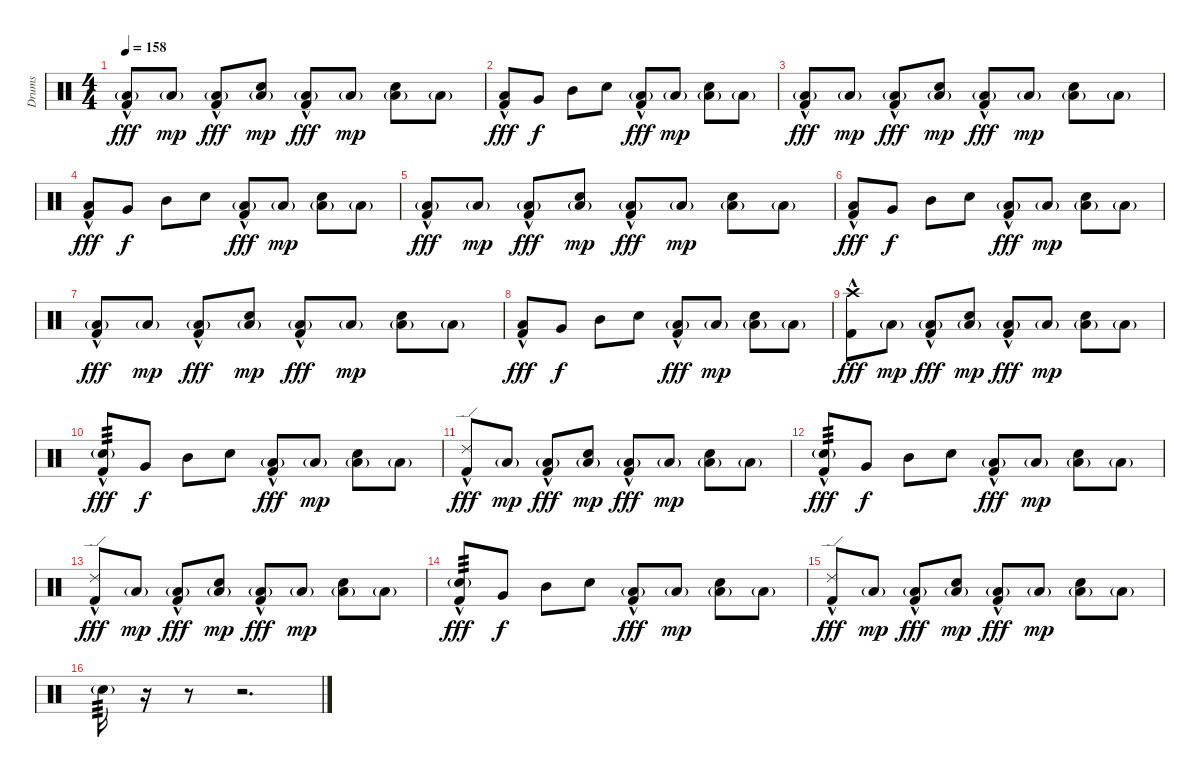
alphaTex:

\track ("Drums" "Drums") {instrument percussion}
\staff {score}
\articulation defaults
\ts (4 4)
\tempo 158
\clef neutral
\ks c
("Low Floor Tom (hit)"{g} "Kick (hit) 2"{hac}).8{dy fff} "Low Floor Tom (hit)"{g}.8{dy mp} ("Low Floor Tom (hit)"{g} "Kick (hit) 2"{hac}).8{dy fff} ("Electric Snare (hit)" "Low Floor Tom (hit)"{g}).8{dy mp} ("Low Floor Tom (hit)"{g} "Kick (hit) 2"{hac}).8{dy fff} "Low Floor Tom (hit)"{g}.8{dy mp} ("Electric Snare (hit)" "Low Floor Tom (hit)"{g}).8 "Low Floor Tom (hit)"{g}.8 |
("Low Floor Tom (hit)" "Kick (hit) 2"{hac}).8{dy fff} "Very Low Tom (hit)".8{dy f} "Mid Tom (hit)".8 "Electric Snare (hit)".8 ("Low Floor Tom (hit)"{g} "Kick (hit) 2"{hac}).8{dy fff} "Low Floor Tom (hit)"{g}.8{dy mp} ("Electric Snare (hit)" "Low Floor Tom (hit)"{g}).8 "Low Floor Tom (hit)"{g}.8 |
("Low Floor Tom (hit)"{g} "Kick (hit) 2"{hac}).8{dy fff} "Low Floor Tom (hit)"{g}.8{dy mp} ("Low Floor Tom (hit)"{g} "Kick (hit) 2"{hac}).8{dy fff} ("Electric Snare (hit)" "Low Floor Tom (hit)"{g}).8{dy mp} ("Low Floor Tom (hit)"{g} "Kick (hit) 2"{hac}).8{dy fff} "Low Floor Tom (hit)"{g}.8{dy mp} ("Electric Snare (hit)" "Low Floor Tom (hit)"{g}).8 "Low Floor Tom (hit)"{g}.8 |
("Low Floor Tom (hit)" "Kick (hit) 2"{hac}).8{dy fff} "Very Low Tom (hit)".8{dy f} "Mid Tom (hit)".8 "Electric Snare (hit)".8 ("Low Floor Tom (hit)"{g} "Kick (hit) 2"{hac}).8{dy fff} "Low Floor Tom (hit)"{g}.8{dy mp} ("Electric Snare (hit)" "Low Floor Tom (hit)"{g}).8 "Low Floor Tom (hit)"{g}.8 |
("Low Floor Tom (hit)"{g} "Kick (hit) 2"{hac}).8{dy fff} "Low Floor Tom (hit)"{g}.8{dy mp} ("Low Floor Tom (hit)"{g} "Kick (hit) 2"{hac}).8{dy fff} ("Electric Snare (hit)" "Low Floor Tom (hit)"{g}).8{dy mp} ("Low Floor Tom (hit)"{g} "Kick (hit) 2"{hac}).8{dy fff} "Low Floor Tom (hit)"{g}.8{dy mp} ("Electric Snare (hit)" "Low Floor Tom (hit)"{g}).8 "Low Floor Tom (hit)"{g}.8 |
("Low Floor Tom (hit)" "Kick (hit) 2"{hac}).8{dy fff} "Very Low Tom (hit)".8{dy f} "Mid Tom (hit)".8 "Electric Snare (hit)".8 ("Low Floor Tom (hit)"{g} "Kick (hit) 2"{hac}).8{dy fff} "Low Floor Tom (hit)"{g}.8{dy mp} ("Electric Snare (hit)" "Low Floor Tom (hit)"{g}).8 "Low Floor Tom (hit)"{g}.8 |
("Low Floor Tom (hit)"{g} "Kick (hit) 2"{hac}).8{dy fff} "Low Floor Tom (hit)"{g}.8{dy mp} ("Low Floor Tom (hit)"{g} "Kick (hit) 2"{hac}).8{dy fff} ("Electric Snare (hit)" "Low Floor Tom (hit)"{g}).8{dy mp} ("Low Floor Tom (hit)"{g} "Kick (hit) 2"{hac}).8{dy fff} "Low Floor Tom (hit)"{g}.8{dy mp} ("Electric Snare (hit)" "Low Floor Tom (hit)"{g}).8 "Low Floor Tom (hit)"{g}.8 |
("Low Floor Tom (hit)" "Kick (hit) 2"{hac}).8{dy fff} "Very Low Tom (hit)".8{dy f} "Mid Tom (hit)".8 "Electric Snare (hit)".8 ("Low Floor Tom (hit)"{g} "Kick (hit) 2"{hac}).8{dy fff} "Low Floor Tom (hit)"{g}.8{dy mp} ("Electric Snare (hit)" "Low Floor Tom (hit)"{g}).8 "Low Floor Tom (hit)"{g}.8 |
("Crash high (hit)" "Kick (hit) 2"{hac}).8{dy fff} "Low Floor Tom (hit)"{g}.8{dy mp} ("Low Floor Tom (hit)"{g} "Kick (hit) 2"{hac}).8{dy fff} ("Electric Snare (hit)" "Low Floor Tom (hit)"{g}).8{dy mp} ("Low Floor Tom (hit)"{g} "Kick (hit) 2"{hac}).8{dy fff} "Low Floor Tom (hit)"{g}.8{dy mp} ("Electric Snare (hit)" "Low Floor Tom (hit)"{g}).8 "Low Floor Tom (hit)"{g}.8 |
("Snare (hit) 2"{g} "Kick (hit) 2"{hac}).8{tp 3 dy fff} "Very Low Tom (hit)".8{dy f} "Mid Tom (hit)".8 "Electric Snare (hit)".8 ("Low Floor Tom (hit)"{g} "Kick (hit) 2"{hac}).8{dy fff} "Low Floor Tom (hit)"{g}.8{dy mp} ("Electric Snare (hit)" "Low Floor Tom (hit)"{g}).8 "Low Floor Tom (hit)"{g}.8 |
("Ride (edge) 2" "Kick (hit) 2"{hac}).8{dy fff} "Low Floor Tom (hit)"{g}.8{dy mp} ("Low Floor Tom (hit)"{g} "Kick (hit) 2"{hac}).8{dy fff} ("Electric Snare (hit)" "Low Floor Tom (hit)"{g}).8{dy mp} ("Low Floor Tom (hit)"{g} "Kick (hit) 2"{hac}).8{dy fff} "Low Floor Tom (hit)"{g}.8{dy mp} ("Electric Snare (hit)" "Low Floor Tom (hit)"{g}).8 "Low Floor Tom (hit)"{g}.8 |
("Snare (hit) 2"{g} "Kick (hit) 2"{hac}).8{tp 3 dy fff} "Very Low Tom (hit)".8{dy f} "Mid Tom (hit)".8 "Electric Snare (hit)".8 ("Low Floor Tom (hit)"{g} "Kick (hit) 2"{hac}).8{dy fff} "Low Floor Tom (hit)"{g}.8{dy mp} ("Electric Snare (hit)" "Low Floor Tom (hit)"{g}).8 "Low Floor Tom (hit)"{g}.8 |
("Ride (edge) 2" "Kick (hit) 2"{hac}).8{dy fff} "Low Floor Tom (hit)"{g}.8{dy mp} ("Low Floor Tom (hit)"{g} "Kick (hit) 2"{hac}).8{dy fff} ("Electric Snare (hit)" "Low Floor Tom (hit)"{g}).8{dy mp} ("Low Floor Tom (hit)"{g} "Kick (hit) 2"{hac}).8{dy fff} "Low Floor Tom (hit)"{g}.8{dy mp} ("Electric Snare (hit)" "Low Floor Tom (hit)"{g}).8 "Low Floor Tom (hit)"{g}.8 |
("Snare (hit) 2"{g} "Kick (hit) 2"{hac}).8{tp 3 dy fff} "Very Low Tom (hit)".8{dy f} "Mid Tom (hit)".8 "Electric Snare (hit)".8 ("Low Floor Tom (hit)"{g} "Kick (hit) 2"{hac}).8{dy fff} "Low Floor Tom (hit)"{g}.8{dy mp} ("Electric Snare (hit)" "Low Floor Tom (hit)"{g}).8 "Low Floor Tom (hit)"{g}.8 |
("Ride (edge) 2" "Kick (hit) 2"{hac}).8{dy fff} "Low Floor Tom (hit)"{g}.8{dy mp} ("Low Floor Tom (hit)"{g} "Kick (hit) 2"{hac}).8{dy fff} ("Electric Snare (hit)" "Low Floor Tom (hit)"{g}).8{dy mp} ("Low Floor Tom (hit)"{g} "Kick (hit) 2"{hac}).8{dy fff} "Low Floor Tom (hit)"{g}.8{dy mp} ("Electric Snare (hit)" "Low Floor Tom (hit)"{g}).8 "Low Floor Tom (hit)"{g}.8 |
"Snare (hit) 2"{g}.16{tp 3} r.16 r.8 r.2{d}
